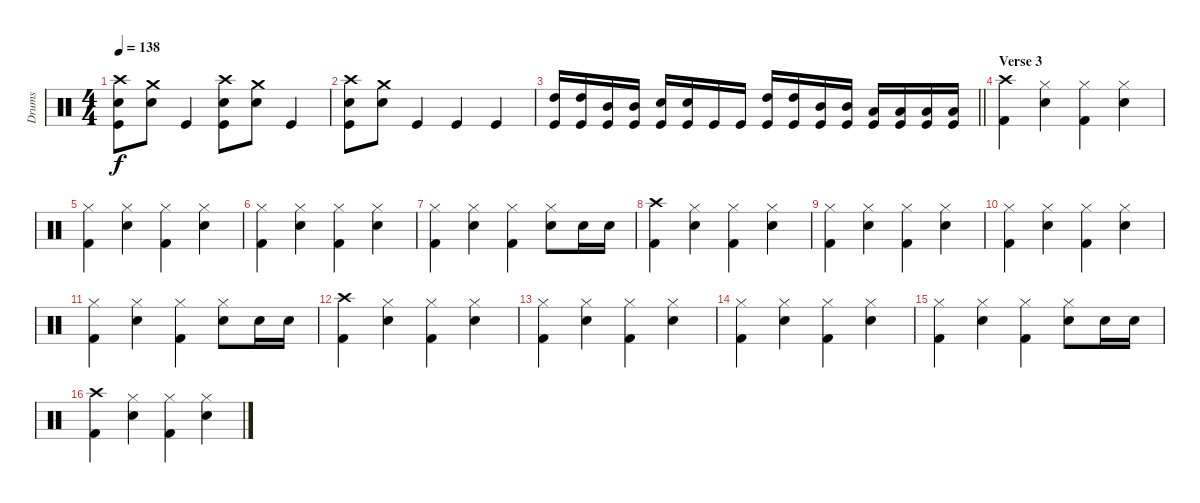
\track ("Drums" "Drums") {instrument percussion}
\staff {score}
\articulation defaults
\ts (4 4)
\tempo 138
\clef neutral
\ks c
("Crash high (hit)" "Snare (hit) 2" "Kick (hit)").8{dy f} ("Crash medium (hit)" "Snare (hit) 2").8 "Kick (hit)".4 ("Crash high (hit)" "Snare (hit) 2" "Kick (hit)").8 ("Crash medium (hit)" "Snare (hit) 2").8 "Kick (hit)".4 |
("Crash high (hit)" "Snare (hit) 2" "Kick (hit)").8 ("Crash medium (hit)" "Snare (hit) 2").8 "Kick (hit)".4 "Kick (hit)".4 "Kick (hit)".4 |
\barLineRight lightlight
("High Tom (hit)" "Kick (hit)").16 ("High Tom (hit)" "Kick (hit)").16 ("Mid Tom (hit)" "Kick (hit)").16 ("Mid Tom (hit)" "Kick (hit)").16 ("Snare (hit) 2" "Kick (hit)").16 ("Snare (hit) 2" "Kick (hit)").16 "Kick (hit)".16 "Kick (hit)".16 ("High Tom (hit)" "Kick (hit)").16 ("High Tom (hit)" "Kick (hit)").16 ("Mid Tom (hit)" "Kick (hit)").16 ("Mid Tom (hit)" "Kick (hit)").16 ("Low Tom (hit)" "Kick (hit)").16 ("Low Tom (hit)" "Kick (hit)").16 ("Low Floor Tom (hit)" "Kick (hit)").16 ("Low Floor Tom (hit)" "Kick (hit)").16 |
\section ("" "Verse 3")
("Crash high (hit)" "Kick (hit) 2").4 ("Snare (hit) 2" "Hi-Hat (closed)").4 ("Hi-Hat (closed)" "Kick (hit) 2").4 ("Snare (hit) 2" "Hi-Hat (closed)").4 |
("Hi-Hat (closed)" "Kick (hit) 2").4 ("Snare (hit) 2" "Hi-Hat (closed)").4 ("Hi-Hat (closed)" "Kick (hit) 2").4 ("Snare (hit) 2" "Hi-Hat (closed)").4 |
("Hi-Hat (closed)" "Kick (hit) 2").4 ("Snare (hit) 2" "Hi-Hat (closed)").4 ("Hi-Hat (closed)" "Kick (hit) 2").4 ("Snare (hit) 2" "Hi-Hat (closed)").4 |
("Hi-Hat (closed)" "Kick (hit) 2").4 ("Snare (hit) 2" "Hi-Hat (closed)").4 ("Hi-Hat (closed)" "Kick (hit) 2").4 ("Snare (hit) 2" "Hi-Hat (closed)").8 "Snare (hit) 2".16 "Snare (hit) 2".16 |
("Crash high (hit)" "Kick (hit) 2").4 ("Snare (hit) 2" "Hi-Hat (closed)").4 ("Hi-Hat (closed)" "Kick (hit) 2").4 ("Snare (hit) 2" "Hi-Hat (closed)").4 |
("Hi-Hat (closed)" "Kick (hit) 2").4 ("Snare (hit) 2" "Hi-Hat (closed)").4 ("Hi-Hat (closed)" "Kick (hit) 2").4 ("Snare (hit) 2" "Hi-Hat (closed)").4 |
("Hi-Hat (closed)" "Kick (hit) 2").4 ("Snare (hit) 2" "Hi-Hat (closed)").4 ("Hi-Hat (closed)" "Kick (hit) 2").4 ("Snare (hit) 2" "Hi-Hat (closed)").4 |
("Hi-Hat (closed)" "Kick (hit) 2").4 ("Snare (hit) 2" "Hi-Hat (closed)").4 ("Hi-Hat (closed)" "Kick (hit) 2").4 ("Snare (hit) 2" "Hi-Hat (closed)").8 "Snare (hit) 2".16 "Snare (hit) 2".16 |
("Crash high (hit)" "Kick (hit) 2").4 ("Snare (hit) 2" "Hi-Hat (closed)").4 ("Hi-Hat (closed)" "Kick (hit) 2").4 ("Snare (hit) 2" "Hi-Hat (closed)").4 |
("Hi-Hat (closed)" "Kick (hit) 2").4 ("Snare (hit) 2" "Hi-Hat (closed)").4 ("Hi-Hat (closed)" "Kick (hit) 2").4 ("Snare (hit) 2" "Hi-Hat (closed)").4 |
("Hi-Hat (closed)" "Kick (hit) 2").4 ("Snare (hit) 2" "Hi-Hat (closed)").4 ("Hi-Hat (closed)" "Kick (hit) 2").4 ("Snare (hit) 2" "Hi-Hat (closed)").4 |
("Hi-Hat (closed)" "Kick (hit) 2").4 ("Snare (hit) 2" "Hi-Hat (closed)").4 ("Hi-Hat (closed)" "Kick (hit) 2").4 ("Snare (hit) 2" "Hi-Hat (closed)").8 "Snare (hit) 2".16 "Snare (hit) 2".16 |
("Crash high (hit)" "Kick (hit) 2").4 ("Snare (hit) 2" "Hi-Hat (closed)").4 ("Hi-Hat (closed)" "Kick (hit) 2").4 ("Snare (hit) 2" "Hi-Hat (closed)").4
